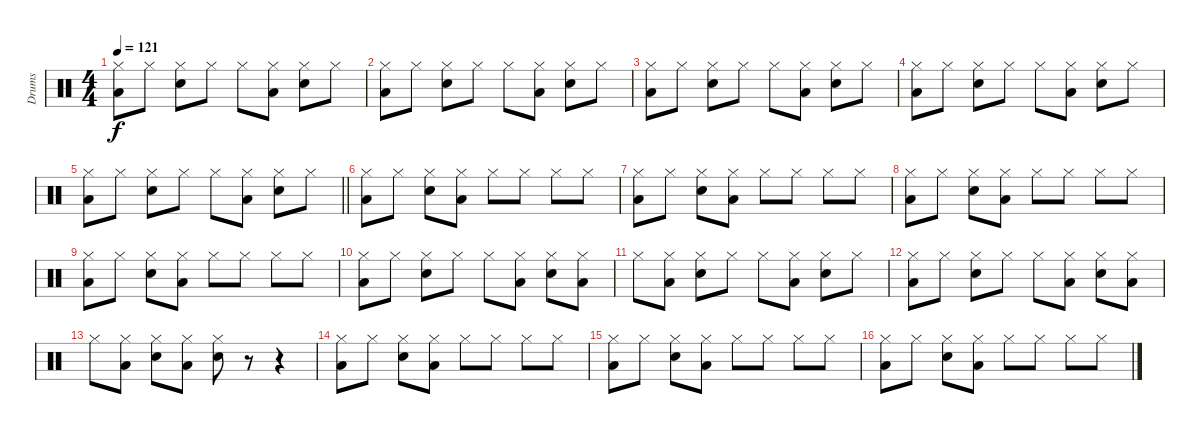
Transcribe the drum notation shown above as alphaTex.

\track ("Drums" "Drums") {instrument percussion}
\staff {score}
\articulation defaults
\ts (4 4)
\tempo 121
\clef neutral
\ks c
("Hi-Hat (closed)" "Low Floor Tom (hit)").8{dy f} "Hi-Hat (closed)".8 ("Hi-Hat (closed)" "Electric Snare (hit)").8 "Hi-Hat (closed)".8 "Hi-Hat (closed)".8 ("Hi-Hat (closed)" "Low Floor Tom (hit)").8 ("Hi-Hat (closed)" "Electric Snare (hit)").8 "Hi-Hat (closed)".8 |
("Hi-Hat (closed)" "Low Floor Tom (hit)").8 "Hi-Hat (closed)".8 ("Hi-Hat (closed)" "Electric Snare (hit)").8 "Hi-Hat (closed)".8 "Hi-Hat (closed)".8 ("Hi-Hat (closed)" "Low Floor Tom (hit)").8 ("Hi-Hat (closed)" "Electric Snare (hit)").8 "Hi-Hat (closed)".8 |
("Hi-Hat (closed)" "Low Floor Tom (hit)").8 "Hi-Hat (closed)".8 ("Hi-Hat (closed)" "Electric Snare (hit)").8 "Hi-Hat (closed)".8 "Hi-Hat (closed)".8 ("Hi-Hat (closed)" "Low Floor Tom (hit)").8 ("Hi-Hat (closed)" "Electric Snare (hit)").8 "Hi-Hat (closed)".8 |
("Hi-Hat (closed)" "Low Floor Tom (hit)").8 "Hi-Hat (closed)".8 ("Hi-Hat (closed)" "Electric Snare (hit)").8 "Hi-Hat (closed)".8 "Hi-Hat (closed)".8 ("Hi-Hat (closed)" "Low Floor Tom (hit)").8 ("Hi-Hat (closed)" "Electric Snare (hit)").8 "Hi-Hat (closed)".8 |
\barLineRight lightlight
("Hi-Hat (closed)" "Low Floor Tom (hit)").8 "Hi-Hat (closed)".8 ("Hi-Hat (closed)" "Electric Snare (hit)").8 "Hi-Hat (closed)".8 "Hi-Hat (closed)".8 ("Hi-Hat (closed)" "Low Floor Tom (hit)").8 ("Hi-Hat (closed)" "Electric Snare (hit)").8 "Hi-Hat (closed)".8 |
("Hi-Hat (closed)" "Low Floor Tom (hit)").8 "Hi-Hat (closed)".8 ("Hi-Hat (closed)" "Electric Snare (hit)").8 ("Hi-Hat (closed)" "Low Floor Tom (hit)").8 "Hi-Hat (closed)".8 "Hi-Hat (closed)".8 "Hi-Hat (closed)".8 "Hi-Hat (closed)".8 |
("Hi-Hat (closed)" "Low Floor Tom (hit)").8 "Hi-Hat (closed)".8 ("Hi-Hat (closed)" "Electric Snare (hit)").8 ("Hi-Hat (closed)" "Low Floor Tom (hit)").8 "Hi-Hat (closed)".8 "Hi-Hat (closed)".8 "Hi-Hat (closed)".8 "Hi-Hat (closed)".8 |
("Hi-Hat (closed)" "Low Floor Tom (hit)").8 "Hi-Hat (closed)".8 ("Hi-Hat (closed)" "Electric Snare (hit)").8 ("Hi-Hat (closed)" "Low Floor Tom (hit)").8 "Hi-Hat (closed)".8 "Hi-Hat (closed)".8 "Hi-Hat (closed)".8 "Hi-Hat (closed)".8 |
("Hi-Hat (closed)" "Low Floor Tom (hit)").8 "Hi-Hat (closed)".8 ("Hi-Hat (closed)" "Electric Snare (hit)").8 ("Hi-Hat (closed)" "Low Floor Tom (hit)").8 "Hi-Hat (closed)".8 "Hi-Hat (closed)".8 "Hi-Hat (closed)".8 "Hi-Hat (closed)".8 |
("Hi-Hat (closed)" "Low Floor Tom (hit)").8 "Hi-Hat (closed)".8 ("Hi-Hat (closed)" "Electric Snare (hit)").8 "Hi-Hat (closed)".8 "Hi-Hat (closed)".8 ("Hi-Hat (closed)" "Low Floor Tom (hit)").8 ("Hi-Hat (closed)" "Electric Snare (hit)").8 ("Hi-Hat (closed)" "Low Floor Tom (hit)").8 |
"Hi-Hat (closed)".8 ("Hi-Hat (closed)" "Low Floor Tom (hit)").8 ("Hi-Hat (closed)" "Electric Snare (hit)").8 "Hi-Hat (closed)".8 "Hi-Hat (closed)".8 ("Hi-Hat (closed)" "Low Floor Tom (hit)").8 ("Hi-Hat (closed)" "Electric Snare (hit)").8 "Hi-Hat (closed)".8 |
("Hi-Hat (closed)" "Low Floor Tom (hit)").8 "Hi-Hat (closed)".8 ("Hi-Hat (closed)" "Electric Snare (hit)").8 "Hi-Hat (closed)".8 "Hi-Hat (closed)".8 ("Hi-Hat (closed)" "Low Floor Tom (hit)").8 ("Hi-Hat (closed)" "Electric Snare (hit)").8 ("Hi-Hat (closed)" "Low Floor Tom (hit)").8 |
"Hi-Hat (closed)".8 ("Hi-Hat (closed)" "Low Floor Tom (hit)").8 ("Hi-Hat (closed)" "Electric Snare (hit)").8 ("Hi-Hat (closed)" "Low Floor Tom (hit)").8 ("Hi-Hat (closed)" "Electric Snare (hit)").8 r.8 r.4 |
("Hi-Hat (closed)" "Low Floor Tom (hit)").8 "Hi-Hat (closed)".8 ("Hi-Hat (closed)" "Electric Snare (hit)").8 ("Hi-Hat (closed)" "Low Floor Tom (hit)").8 "Hi-Hat (closed)".8 "Hi-Hat (closed)".8 "Hi-Hat (closed)".8 "Hi-Hat (closed)".8 |
("Hi-Hat (closed)" "Low Floor Tom (hit)").8 "Hi-Hat (closed)".8 ("Hi-Hat (closed)" "Electric Snare (hit)").8 ("Hi-Hat (closed)" "Low Floor Tom (hit)").8 "Hi-Hat (closed)".8 "Hi-Hat (closed)".8 "Hi-Hat (closed)".8 "Hi-Hat (closed)".8 |
("Hi-Hat (closed)" "Low Floor Tom (hit)").8 "Hi-Hat (closed)".8 ("Hi-Hat (closed)" "Electric Snare (hit)").8 ("Hi-Hat (closed)" "Low Floor Tom (hit)").8 "Hi-Hat (closed)".8 "Hi-Hat (closed)".8 "Hi-Hat (closed)".8 "Hi-Hat (closed)".8
